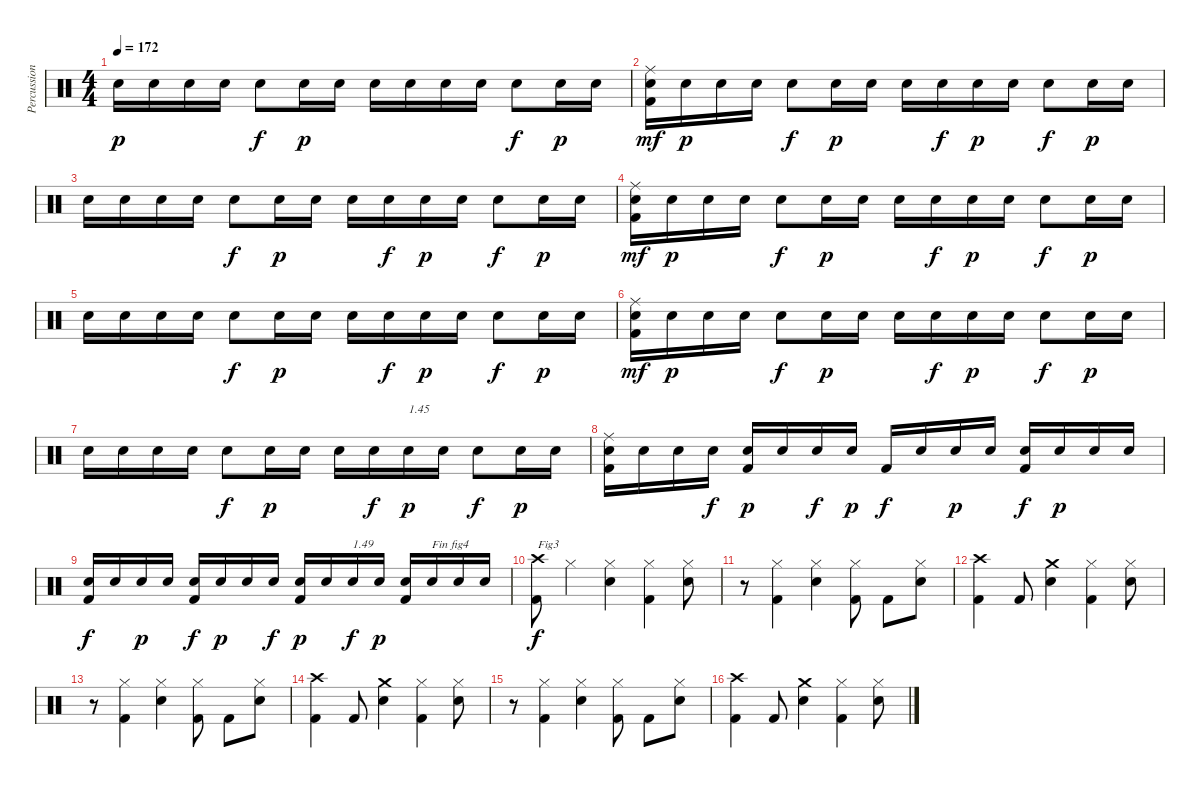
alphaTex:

\track ("Percussions" "Percussion") {instrument percussion}
\staff {score}
\articulation defaults
\ts (4 4)
\tempo 172
\clef neutral
\ks c "Electric Snare (hit)".16{dy p} "Electric Snare (hit)".16 "Electric Snare (hit)".16 "Electric Snare (hit)".16 "Electric Snare (hit)".8{dy f} "Electric Snare (hit)".16{dy p} "Electric Snare (hit)".16 "Electric Snare (hit)".16 "Electric Snare (hit)".16 "Electric Snare (hit)".16 "Electric Snare (hit)".16 "Electric Snare (hit)".8{dy f} "Electric Snare (hit)".16{dy p} "Electric Snare (hit)".16
|
("Kick (hit) 2" "Electric Snare (hit)" "Ride (middle)").16{dy mf} "Electric Snare (hit)".16{dy p} "Electric Snare (hit)".16 "Electric Snare (hit)".16 "Electric Snare (hit)".8{dy f} "Electric Snare (hit)".16{dy p} "Electric Snare (hit)".16 "Electric Snare (hit)".16 "Electric Snare (hit)".16{dy f} "Electric Snare (hit)".16{dy p} "Electric Snare (hit)".16 "Electric Snare (hit)".8{dy f} "Electric Snare (hit)".16{dy p} "Electric Snare (hit)".16 |
"Electric Snare (hit)".16 "Electric Snare (hit)".16 "Electric Snare (hit)".16 "Electric Snare (hit)".16 "Electric Snare (hit)".8{dy f} "Electric Snare (hit)".16{dy p} "Electric Snare (hit)".16 "Electric Snare (hit)".16 "Electric Snare (hit)".16{dy f} "Electric Snare (hit)".16{dy p} "Electric Snare (hit)".16 "Electric Snare (hit)".8{dy f} "Electric Snare (hit)".16{dy p} "Electric Snare (hit)".16 |
("Kick (hit) 2" "Electric Snare (hit)" "Ride (middle)").16{dy mf} "Electric Snare (hit)".16{dy p} "Electric Snare (hit)".16 "Electric Snare (hit)".16 "Electric Snare (hit)".8{dy f} "Electric Snare (hit)".16{dy p} "Electric Snare (hit)".16 "Electric Snare (hit)".16 "Electric Snare (hit)".16{dy f} "Electric Snare (hit)".16{dy p} "Electric Snare (hit)".16 "Electric Snare (hit)".8{dy f} "Electric Snare (hit)".16{dy p} "Electric Snare (hit)".16 |
"Electric Snare (hit)".16 "Electric Snare (hit)".16 "Electric Snare (hit)".16 "Electric Snare (hit)".16 "Electric Snare (hit)".8{dy f} "Electric Snare (hit)".16{dy p} "Electric Snare (hit)".16 "Electric Snare (hit)".16 "Electric Snare (hit)".16{dy f} "Electric Snare (hit)".16{dy p} "Electric Snare (hit)".16 "Electric Snare (hit)".8{dy f} "Electric Snare (hit)".16{dy p} "Electric Snare (hit)".16 |
("Kick (hit) 2" "Electric Snare (hit)" "Ride (middle)").16{dy mf} "Electric Snare (hit)".16{dy p} "Electric Snare (hit)".16 "Electric Snare (hit)".16 "Electric Snare (hit)".8{dy f} "Electric Snare (hit)".16{dy p} "Electric Snare (hit)".16 "Electric Snare (hit)".16 "Electric Snare (hit)".16{dy f} "Electric Snare (hit)".16{dy p} "Electric Snare (hit)".16 "Electric Snare (hit)".8{dy f} "Electric Snare (hit)".16{dy p} "Electric Snare (hit)".16 |
"Electric Snare (hit)".16 "Electric Snare (hit)".16 "Electric Snare (hit)".16 "Electric Snare (hit)".16 "Electric Snare (hit)".8{dy f} "Electric Snare (hit)".16{dy p} "Electric Snare (hit)".16 "Electric Snare (hit)".16 "Electric Snare (hit)".16{dy f} "Electric Snare (hit)".16{txt "1.45" dy p} "Electric Snare (hit)".16 "Electric Snare (hit)".8{dy f} "Electric Snare (hit)".16{dy p} "Electric Snare (hit)".16 |
("Kick (hit) 2" "Electric Snare (hit)" "Ride (middle)").16 "Electric Snare (hit)".16 "Electric Snare (hit)".16 "Electric Snare (hit)".16{dy f} ("Kick (hit) 2" "Electric Snare (hit)").16{dy p} "Electric Snare (hit)".16 "Electric Snare (hit)".16{dy f} "Electric Snare (hit)".16{dy p} "Kick (hit) 2".16{dy f} "Electric Snare (hit)".16 "Electric Snare (hit)".16{dy p} "Electric Snare (hit)".16 ("Kick (hit) 2" "Electric Snare (hit)").16{dy f} "Electric Snare (hit)".16{dy p} "Electric Snare (hit)".16 "Electric Snare (hit)".16 |
("Kick (hit) 2" "Electric Snare (hit)").16{dy f} "Electric Snare (hit)".16 "Electric Snare (hit)".16{dy p} "Electric Snare (hit)".16 ("Kick (hit) 2" "Electric Snare (hit)").16{dy f} "Electric Snare (hit)".16{dy p} "Electric Snare (hit)".16 "Electric Snare (hit)".16{dy f} ("Kick (hit) 2" "Electric Snare (hit)").16{dy p} "Electric Snare (hit)".16 "Electric Snare (hit)".16{txt "1.49" dy f} "Electric Snare (hit)".16{dy p} ("Kick (hit) 2" "Electric Snare (hit)").16 "Electric Snare (hit)".16{txt "Fin fig4"} "Electric Snare (hit)".16 "Electric Snare (hit)".16 |
("Kick (hit) 2" "Crash high (hit)").8{txt "Fig3" dy f} "Hi-Hat (closed)".4 ("Electric Snare (hit)" "Hi-Hat (closed)").4 ("Kick (hit) 2" "Hi-Hat (closed)").4 ("Electric Snare (hit)" "Hi-Hat (closed)").8 |
r.8 ("Kick (hit) 2" "Hi-Hat (closed)").4 ("Electric Snare (hit)" "Hi-Hat (closed)").4 ("Kick (hit) 2" "Hi-Hat (closed)").8 "Kick (hit) 2".8 ("Electric Snare (hit)" "Hi-Hat (closed)").8 |
("Kick (hit) 2" "Crash high (hit)").4 "Kick (hit) 2".8 ("Electric Snare (hit)" "Crash medium (hit)").4 ("Kick (hit) 2" "Hi-Hat (closed)").4 ("Electric Snare (hit)" "Hi-Hat (closed)").8 |
r.8 ("Kick (hit) 2" "Hi-Hat (closed)").4 ("Electric Snare (hit)" "Hi-Hat (closed)").4 ("Kick (hit) 2" "Hi-Hat (closed)").8 "Kick (hit) 2".8 ("Electric Snare (hit)" "Hi-Hat (closed)").8 |
("Kick (hit) 2" "Crash high (hit)").4 "Kick (hit) 2".8 ("Electric Snare (hit)" "Crash medium (hit)").4 ("Kick (hit) 2" "Hi-Hat (closed)").4 ("Electric Snare (hit)" "Hi-Hat (closed)").8 |
r.8 ("Kick (hit) 2" "Hi-Hat (closed)").4 ("Electric Snare (hit)" "Hi-Hat (closed)").4 ("Kick (hit) 2" "Hi-Hat (closed)").8 "Kick (hit) 2".8 ("Electric Snare (hit)" "Hi-Hat (closed)").8 |
("Kick (hit) 2" "Crash high (hit)").4 "Kick (hit) 2".8 ("Electric Snare (hit)" "Crash medium (hit)").4 ("Kick (hit) 2" "Hi-Hat (closed)").4 ("Electric Snare (hit)" "Hi-Hat (closed)").8
